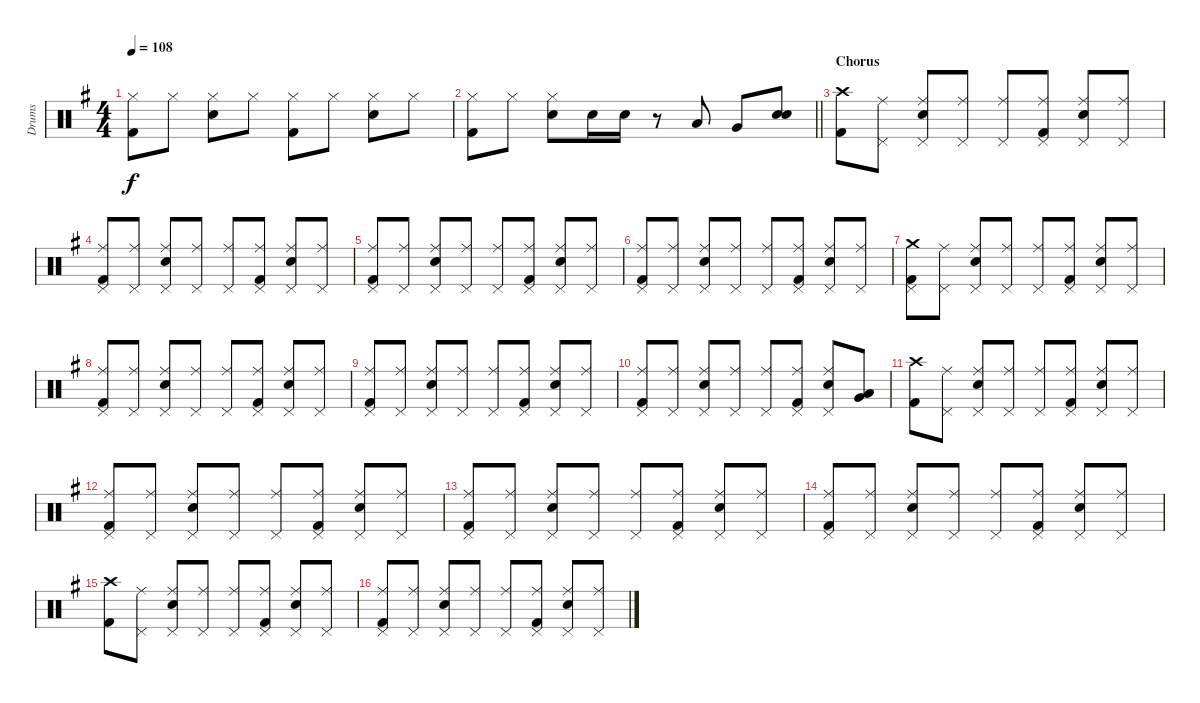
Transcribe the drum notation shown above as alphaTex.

\track ("Drums" "Drums") {instrument percussion}
\staff {score}
\articulation defaults
\ts (4 4)
\tempo 108
\clef neutral
\ks g
("Hi-Hat (closed)" "Kick (hit) 2").8{dy f} "Hi-Hat (closed)".8 ("Hi-Hat (closed)" "Electric Snare (hit)").8 "Hi-Hat (closed)".8 ("Hi-Hat (closed)" "Kick (hit) 2").8 "Hi-Hat (closed)".8 ("Hi-Hat (closed)" "Electric Snare (hit)").8 "Hi-Hat (closed)".8 |
\barLineRight lightlight
("Hi-Hat (closed)" "Kick (hit) 2").8 "Hi-Hat (closed)".8 ("Hi-Hat (closed)" "Electric Snare (hit)").8 "Electric Snare (hit)".16 "Electric Snare (hit)".16 r.8 "Low Tom (hit)".8 "Very Low Tom (hit)".8 ("Electric Snare (hit)" "Electric Snare (hit)").8 |
\section ("" "Chorus")
("Crash high (hit)" "Kick (hit) 2").8 ("Ride (middle)" "Pedal Hi-Hat (hit)").8 ("Ride (middle)" "Electric Snare (hit)" "Pedal Hi-Hat (hit)").8 ("Ride (middle)" "Pedal Hi-Hat (hit)").8 ("Ride (middle)" "Pedal Hi-Hat (hit)").8 ("Ride (middle)" "Kick (hit) 2" "Pedal Hi-Hat (hit)").8 ("Ride (middle)" "Electric Snare (hit)" "Pedal Hi-Hat (hit)").8 ("Ride (middle)" "Pedal Hi-Hat (hit)").8 |
("Ride (middle)" "Kick (hit) 2" "Pedal Hi-Hat (hit)").8 ("Ride (middle)" "Pedal Hi-Hat (hit)").8 ("Ride (middle)" "Electric Snare (hit)" "Pedal Hi-Hat (hit)").8 ("Ride (middle)" "Pedal Hi-Hat (hit)").8 ("Ride (middle)" "Pedal Hi-Hat (hit)").8 ("Ride (middle)" "Kick (hit) 2" "Pedal Hi-Hat (hit)").8 ("Ride (middle)" "Electric Snare (hit)" "Pedal Hi-Hat (hit)").8 ("Ride (middle)" "Pedal Hi-Hat (hit)").8 |
("Ride (middle)" "Kick (hit) 2" "Pedal Hi-Hat (hit)").8 ("Ride (middle)" "Pedal Hi-Hat (hit)").8 ("Ride (middle)" "Electric Snare (hit)" "Pedal Hi-Hat (hit)").8 ("Ride (middle)" "Pedal Hi-Hat (hit)").8 ("Ride (middle)" "Pedal Hi-Hat (hit)").8 ("Ride (middle)" "Kick (hit) 2" "Pedal Hi-Hat (hit)").8 ("Ride (middle)" "Electric Snare (hit)" "Pedal Hi-Hat (hit)").8 ("Ride (middle)" "Pedal Hi-Hat (hit)").8 |
("Ride (middle)" "Kick (hit) 2" "Pedal Hi-Hat (hit)").8 ("Ride (middle)" "Pedal Hi-Hat (hit)").8 ("Ride (middle)" "Electric Snare (hit)" "Pedal Hi-Hat (hit)").8 ("Ride (middle)" "Pedal Hi-Hat (hit)").8 ("Ride (middle)" "Pedal Hi-Hat (hit)").8 ("Ride (middle)" "Kick (hit) 2" "Pedal Hi-Hat (hit)").8 ("Ride (middle)" "Electric Snare (hit)" "Pedal Hi-Hat (hit)").8 ("Ride (middle)" "Pedal Hi-Hat (hit)").8 |
("Crash medium (hit)" "Kick (hit) 2" "Pedal Hi-Hat (hit)").8 ("Ride (middle)" "Pedal Hi-Hat (hit)").8 ("Ride (middle)" "Electric Snare (hit)" "Pedal Hi-Hat (hit)").8 ("Ride (middle)" "Pedal Hi-Hat (hit)").8 ("Ride (middle)" "Pedal Hi-Hat (hit)").8 ("Ride (middle)" "Kick (hit) 2" "Pedal Hi-Hat (hit)").8 ("Ride (middle)" "Electric Snare (hit)" "Pedal Hi-Hat (hit)").8 ("Ride (middle)" "Pedal Hi-Hat (hit)").8 |
("Ride (middle)" "Kick (hit) 2" "Pedal Hi-Hat (hit)").8 ("Ride (middle)" "Pedal Hi-Hat (hit)").8 ("Ride (middle)" "Electric Snare (hit)" "Pedal Hi-Hat (hit)").8 ("Ride (middle)" "Pedal Hi-Hat (hit)").8 ("Ride (middle)" "Pedal Hi-Hat (hit)").8 ("Ride (middle)" "Kick (hit) 2" "Pedal Hi-Hat (hit)").8 ("Ride (middle)" "Electric Snare (hit)" "Pedal Hi-Hat (hit)").8 ("Ride (middle)" "Pedal Hi-Hat (hit)").8 |
("Ride (middle)" "Kick (hit) 2" "Pedal Hi-Hat (hit)").8 ("Ride (middle)" "Pedal Hi-Hat (hit)").8 ("Ride (middle)" "Electric Snare (hit)" "Pedal Hi-Hat (hit)").8 ("Ride (middle)" "Pedal Hi-Hat (hit)").8 ("Ride (middle)" "Pedal Hi-Hat (hit)").8 ("Ride (middle)" "Kick (hit) 2" "Pedal Hi-Hat (hit)").8 ("Ride (middle)" "Electric Snare (hit)" "Pedal Hi-Hat (hit)").8 ("Ride (middle)" "Pedal Hi-Hat (hit)").8 |
("Ride (middle)" "Kick (hit) 2" "Pedal Hi-Hat (hit)").8 ("Ride (middle)" "Pedal Hi-Hat (hit)").8 ("Ride (middle)" "Electric Snare (hit)" "Pedal Hi-Hat (hit)").8 ("Ride (middle)" "Pedal Hi-Hat (hit)").8 ("Ride (middle)" "Pedal Hi-Hat (hit)").8 ("Ride (middle)" "Kick (hit) 2" "Pedal Hi-Hat (hit)").8 ("Ride (middle)" "Electric Snare (hit)" "Pedal Hi-Hat (hit)").8 ("Low Tom (hit)" "Very Low Tom (hit)").8 |
("Crash high (hit)" "Kick (hit) 2").8 ("Ride (middle)" "Pedal Hi-Hat (hit)").8 ("Ride (middle)" "Electric Snare (hit)" "Pedal Hi-Hat (hit)").8 ("Ride (middle)" "Pedal Hi-Hat (hit)").8 ("Ride (middle)" "Pedal Hi-Hat (hit)").8 ("Ride (middle)" "Kick (hit) 2" "Pedal Hi-Hat (hit)").8 ("Ride (middle)" "Electric Snare (hit)" "Pedal Hi-Hat (hit)").8 ("Ride (middle)" "Pedal Hi-Hat (hit)").8 |
("Ride (middle)" "Kick (hit) 2" "Pedal Hi-Hat (hit)").8 ("Ride (middle)" "Pedal Hi-Hat (hit)").8 ("Ride (middle)" "Electric Snare (hit)" "Pedal Hi-Hat (hit)").8 ("Ride (middle)" "Pedal Hi-Hat (hit)").8 ("Ride (middle)" "Pedal Hi-Hat (hit)").8 ("Ride (middle)" "Kick (hit) 2" "Pedal Hi-Hat (hit)").8 ("Ride (middle)" "Electric Snare (hit)" "Pedal Hi-Hat (hit)").8 ("Ride (middle)" "Pedal Hi-Hat (hit)").8 |
("Ride (middle)" "Kick (hit) 2" "Pedal Hi-Hat (hit)").8 ("Ride (middle)" "Pedal Hi-Hat (hit)").8 ("Ride (middle)" "Electric Snare (hit)" "Pedal Hi-Hat (hit)").8 ("Ride (middle)" "Pedal Hi-Hat (hit)").8 ("Ride (middle)" "Pedal Hi-Hat (hit)").8 ("Ride (middle)" "Kick (hit) 2" "Pedal Hi-Hat (hit)").8 ("Ride (middle)" "Electric Snare (hit)" "Pedal Hi-Hat (hit)").8 ("Ride (middle)" "Pedal Hi-Hat (hit)").8 |
("Ride (middle)" "Kick (hit) 2" "Pedal Hi-Hat (hit)").8 ("Ride (middle)" "Pedal Hi-Hat (hit)").8 ("Ride (middle)" "Electric Snare (hit)" "Pedal Hi-Hat (hit)").8 ("Ride (middle)" "Pedal Hi-Hat (hit)").8 ("Ride (middle)" "Pedal Hi-Hat (hit)").8 ("Ride (middle)" "Kick (hit) 2" "Pedal Hi-Hat (hit)").8 ("Ride (middle)" "Electric Snare (hit)" "Pedal Hi-Hat (hit)").8 ("Ride (middle)" "Pedal Hi-Hat (hit)").8 |
("Crash high (hit)" "Kick (hit) 2").8 ("Ride (middle)" "Pedal Hi-Hat (hit)").8 ("Ride (middle)" "Electric Snare (hit)" "Pedal Hi-Hat (hit)").8 ("Ride (middle)" "Pedal Hi-Hat (hit)").8 ("Ride (middle)" "Pedal Hi-Hat (hit)").8 ("Ride (middle)" "Kick (hit) 2" "Pedal Hi-Hat (hit)").8 ("Ride (middle)" "Electric Snare (hit)" "Pedal Hi-Hat (hit)").8 ("Ride (middle)" "Pedal Hi-Hat (hit)").8 |
("Ride (middle)" "Kick (hit) 2" "Pedal Hi-Hat (hit)").8 ("Ride (middle)" "Pedal Hi-Hat (hit)").8 ("Ride (middle)" "Electric Snare (hit)" "Pedal Hi-Hat (hit)").8 ("Ride (middle)" "Pedal Hi-Hat (hit)").8 ("Ride (middle)" "Pedal Hi-Hat (hit)").8 ("Ride (middle)" "Kick (hit) 2" "Pedal Hi-Hat (hit)").8 ("Ride (middle)" "Electric Snare (hit)" "Pedal Hi-Hat (hit)").8 ("Ride (middle)" "Pedal Hi-Hat (hit)").8
